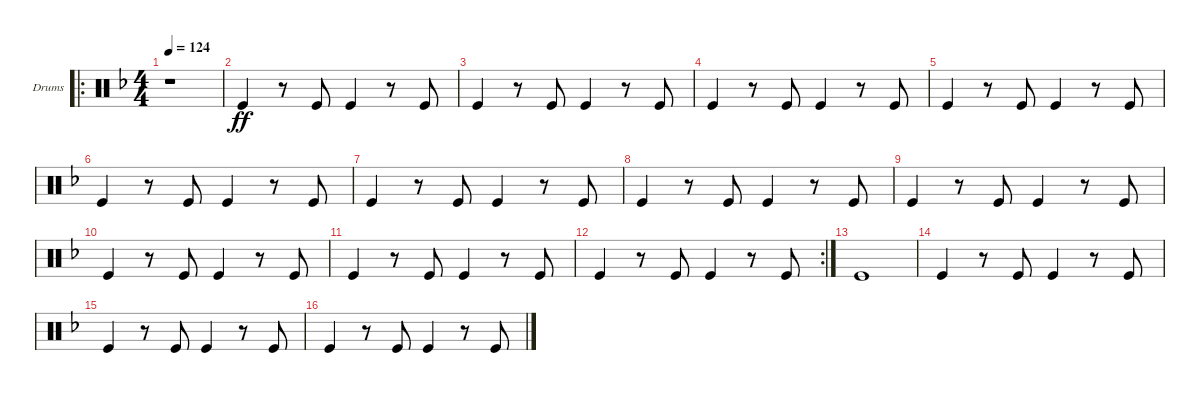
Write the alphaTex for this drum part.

\bracketExtendMode groupsimilarinstruments
\firstSystemTrackNameOrientation horizontal
\otherSystemsTrackNameOrientation horizontal
\track ("Kick Drum" "Drums") {instrument percussion}
\staff {score}
\articulation defaults
\ro
\ts (4 4)
\tempo 124
\clef neutral
\scale
0.527426
\ks dminor
r.1{dy ff} |
\scale
0.236287 "Kick (hit)".4 r.8 "Kick (hit)".8 "Kick (hit)".4 r.8 "Kick (hit)".8 |
\scale
0.236287 "Kick (hit)".4 r.8 "Kick (hit)".8 "Kick (hit)".4 r.8 "Kick (hit)".8 |
\scale
0.333333 "Kick (hit)".4 r.8 "Kick (hit)".8 "Kick (hit)".4 r.8 "Kick (hit)".8 |
\scale
0.333333 "Kick (hit)".4 r.8 "Kick (hit)".8 "Kick (hit)".4 r.8 "Kick (hit)".8 |
\scale
0.333333 "Kick (hit)".4 r.8 "Kick (hit)".8 "Kick (hit)".4 r.8 "Kick (hit)".8 |
\scale
0.333333 "Kick (hit)".4 r.8 "Kick (hit)".8 "Kick (hit)".4 r.8 "Kick (hit)".8 |
\scale
0.333333 "Kick (hit)".4 r.8 "Kick (hit)".8 "Kick (hit)".4 r.8 "Kick (hit)".8 |
\scale
0.333333 "Kick (hit)".4 r.8 "Kick (hit)".8 "Kick (hit)".4 r.8 "Kick (hit)".8 |
\scale
0.321839 "Kick (hit)".4 r.8 "Kick (hit)".8 "Kick (hit)".4 r.8 "Kick (hit)".8 |
\scale
0.321839 "Kick (hit)".4 r.8 "Kick (hit)".8 "Kick (hit)".4 r.8 "Kick (hit)".8 |
\rc 2
\scale
0.356322 "Kick (hit)".4 r.8 "Kick (hit)".8 "Kick (hit)".4 r.8 "Kick (hit)".8 |
\scale
0.333333 "Kick (hit)".1 |
\scale
0.333333 "Kick (hit)".4 r.8 "Kick (hit)".8 "Kick (hit)".4 r.8 "Kick (hit)".8 |
\scale
0.333333 "Kick (hit)".4 r.8 "Kick (hit)".8 "Kick (hit)".4 r.8 "Kick (hit)".8 |
\scale
0.333333 "Kick (hit)".4 r.8 "Kick (hit)".8 "Kick (hit)".4 r.8 "Kick (hit)".8
